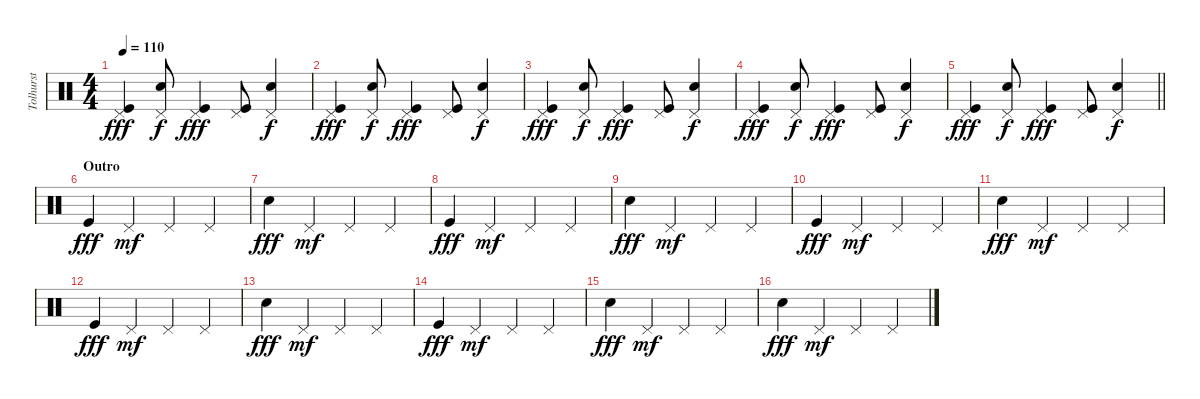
\track ("Tolhurst" "Tolhurst") {instrument percussion}
\staff {score}
\articulation defaults
\ts (4 4)
\tempo 110
\clef neutral
\ks c
("Pedal Hi-Hat (hit)" "Kick (hit)").4{dy fff} ("Pedal Hi-Hat (hit)" "Electric Snare (hit)").8{dy f} ("Pedal Hi-Hat (hit)" "Kick (hit)").4{dy fff} ("Pedal Hi-Hat (hit)" "Kick (hit)").8 ("Pedal Hi-Hat (hit)" "Electric Snare (hit)").4{dy f} |
("Pedal Hi-Hat (hit)" "Kick (hit)").4{dy fff} ("Pedal Hi-Hat (hit)" "Electric Snare (hit)").8{dy f} ("Pedal Hi-Hat (hit)" "Kick (hit)").4{dy fff} ("Pedal Hi-Hat (hit)" "Kick (hit)").8 ("Pedal Hi-Hat (hit)" "Electric Snare (hit)").4{dy f} |
("Pedal Hi-Hat (hit)" "Kick (hit)").4{dy fff} ("Pedal Hi-Hat (hit)" "Electric Snare (hit)").8{dy f} ("Pedal Hi-Hat (hit)" "Kick (hit)").4{dy fff} ("Pedal Hi-Hat (hit)" "Kick (hit)").8 ("Pedal Hi-Hat (hit)" "Electric Snare (hit)").4{dy f} |
("Pedal Hi-Hat (hit)" "Kick (hit)").4{dy fff} ("Pedal Hi-Hat (hit)" "Electric Snare (hit)").8{dy f} ("Pedal Hi-Hat (hit)" "Kick (hit)").4{dy fff} ("Pedal Hi-Hat (hit)" "Kick (hit)").8 ("Pedal Hi-Hat (hit)" "Electric Snare (hit)").4{dy f} |
\barLineRight lightlight
("Pedal Hi-Hat (hit)" "Kick (hit)").4{dy fff} ("Pedal Hi-Hat (hit)" "Electric Snare (hit)").8{dy f} ("Pedal Hi-Hat (hit)" "Kick (hit)").4{dy fff} ("Pedal Hi-Hat (hit)" "Kick (hit)").8 ("Pedal Hi-Hat (hit)" "Electric Snare (hit)").4{dy f} |
\section ("" "Outro")
"Kick (hit)".4{dy fff} "Pedal Hi-Hat (hit)".4{dy mf} "Pedal Hi-Hat (hit)".4 "Pedal Hi-Hat (hit)".4 |
"Electric Snare (hit)".4{dy fff} "Pedal Hi-Hat (hit)".4{dy mf} "Pedal Hi-Hat (hit)".4 "Pedal Hi-Hat (hit)".4 |
"Kick (hit)".4{dy fff} "Pedal Hi-Hat (hit)".4{dy mf} "Pedal Hi-Hat (hit)".4 "Pedal Hi-Hat (hit)".4 |
"Electric Snare (hit)".4{dy fff} "Pedal Hi-Hat (hit)".4{dy mf} "Pedal Hi-Hat (hit)".4 "Pedal Hi-Hat (hit)".4 |
"Kick (hit)".4{dy fff} "Pedal Hi-Hat (hit)".4{dy mf} "Pedal Hi-Hat (hit)".4 "Pedal Hi-Hat (hit)".4 |
"Electric Snare (hit)".4{dy fff} "Pedal Hi-Hat (hit)".4{dy mf} "Pedal Hi-Hat (hit)".4 "Pedal Hi-Hat (hit)".4 |
"Kick (hit)".4{dy fff} "Pedal Hi-Hat (hit)".4{dy mf} "Pedal Hi-Hat (hit)".4 "Pedal Hi-Hat (hit)".4 |
"Electric Snare (hit)".4{dy fff} "Pedal Hi-Hat (hit)".4{dy mf} "Pedal Hi-Hat (hit)".4 "Pedal Hi-Hat (hit)".4 |
"Kick (hit)".4{dy fff} "Pedal Hi-Hat (hit)".4{dy mf} "Pedal Hi-Hat (hit)".4 "Pedal Hi-Hat (hit)".4 |
"Electric Snare (hit)".4{dy fff} "Pedal Hi-Hat (hit)".4{dy mf} "Pedal Hi-Hat (hit)".4 "Pedal Hi-Hat (hit)".4 |
"Electric Snare (hit)".4{dy fff} "Pedal Hi-Hat (hit)".4{dy mf} "Pedal Hi-Hat (hit)".4 "Pedal Hi-Hat (hit)".4
